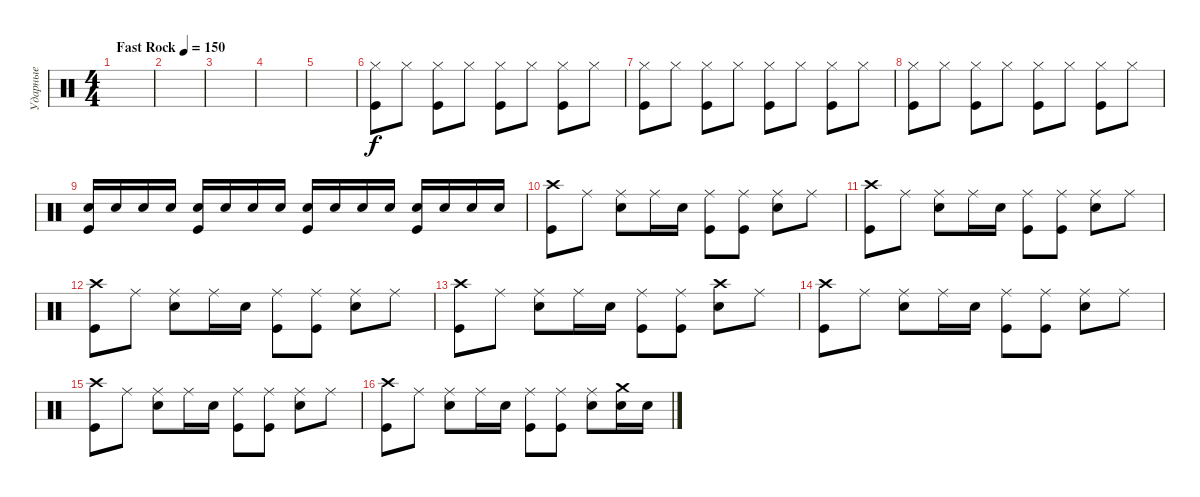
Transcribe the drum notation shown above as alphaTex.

\track ("Ударные" "Ударные") {instrument percussion}
\staff {score}
\articulation defaults
\ts (4 4)
\tempo (150 "Fast Rock")
\clef neutral
\ks c
|
|
|
|
|
("Hi-Hat (closed)" "Kick (hit)").8 "Hi-Hat (closed)".8 ("Hi-Hat (closed)" "Kick (hit)").8 "Hi-Hat (closed)".8 ("Hi-Hat (closed)" "Kick (hit)").8 "Hi-Hat (closed)".8 ("Hi-Hat (closed)" "Kick (hit)").8 "Hi-Hat (closed)".8 |
("Hi-Hat (closed)" "Kick (hit)").8 "Hi-Hat (closed)".8 ("Hi-Hat (closed)" "Kick (hit)").8 "Hi-Hat (closed)".8 ("Hi-Hat (closed)" "Kick (hit)").8 "Hi-Hat (closed)".8 ("Hi-Hat (closed)" "Kick (hit)").8 "Hi-Hat (closed)".8 |
("Hi-Hat (closed)" "Kick (hit)").8 "Hi-Hat (closed)".8 ("Hi-Hat (closed)" "Kick (hit)").8 "Hi-Hat (closed)".8 ("Hi-Hat (closed)" "Kick (hit)").8 "Hi-Hat (closed)".8 ("Hi-Hat (closed)" "Kick (hit)").8 "Hi-Hat (closed)".8 |
("Snare (hit) 2" "Kick (hit)").16 "Snare (hit) 2".16 "Snare (hit) 2".16 "Snare (hit) 2".16 ("Snare (hit) 2" "Kick (hit)").16 "Snare (hit) 2".16 "Snare (hit) 2".16 "Snare (hit) 2".16 ("Snare (hit) 2" "Kick (hit)").16 "Snare (hit) 2".16 "Snare (hit) 2".16 "Snare (hit) 2".16 ("Snare (hit) 2" "Kick (hit)").16 "Snare (hit) 2".16 "Snare (hit) 2".16 "Snare (hit) 2".16 |
("Crash high (hit)" "Kick (hit)").8 "Ride (middle)".8 ("Ride (middle)" "Snare (hit) 2").8 "Ride (middle)".16 "Snare (hit) 2".16 ("Ride (middle)" "Kick (hit)").8 ("Ride (middle)" "Kick (hit)").8 ("Ride (middle)" "Snare (hit) 2").8 "Ride (middle)".8 |
("Crash high (hit)" "Kick (hit)").8 "Ride (middle)".8 ("Ride (middle)" "Snare (hit) 2").8 "Ride (middle)".16 "Snare (hit) 2".16 ("Ride (middle)" "Kick (hit)").8 ("Ride (middle)" "Kick (hit)").8 ("Ride (middle)" "Snare (hit) 2").8 "Ride (middle)".8 |
("Crash high (hit)" "Kick (hit)").8 "Ride (middle)".8 ("Ride (middle)" "Snare (hit) 2").8 "Ride (middle)".16 "Snare (hit) 2".16 ("Ride (middle)" "Kick (hit)").8 ("Ride (middle)" "Kick (hit)").8 ("Ride (middle)" "Snare (hit) 2").8 "Ride (middle)".8 |
("Crash high (hit)" "Kick (hit)").8 "Ride (middle)".8 ("Ride (middle)" "Snare (hit) 2").8 "Ride (middle)".16 "Snare (hit) 2".16 ("Ride (middle)" "Kick (hit)").8 ("Ride (middle)" "Kick (hit)").8 ("Crash high (hit)" "Snare (hit) 2").8 "Ride (middle)".8 |
("Crash high (hit)" "Kick (hit)").8 "Ride (middle)".8 ("Ride (middle)" "Snare (hit) 2").8 "Ride (middle)".16 "Snare (hit) 2".16 ("Ride (middle)" "Kick (hit)").8 ("Ride (middle)" "Kick (hit)").8 ("Ride (middle)" "Snare (hit) 2").8 "Ride (middle)".8 |
("Crash high (hit)" "Kick (hit)").8 "Ride (middle)".8 ("Ride (middle)" "Snare (hit) 2").8 "Ride (middle)".16 "Snare (hit) 2".16 ("Ride (middle)" "Kick (hit)").8 ("Ride (middle)" "Kick (hit)").8 ("Ride (middle)" "Snare (hit) 2").8 "Ride (middle)".8 |
("Crash high (hit)" "Kick (hit)").8 "Ride (middle)".8 ("Ride (middle)" "Snare (hit) 2").8 "Ride (middle)".16 "Snare (hit) 2".16 ("Ride (middle)" "Kick (hit)").8 ("Ride (middle)" "Kick (hit)").8 ("Ride (middle)" "Snare (hit) 2").8 ("Crash medium (hit)" "Snare (hit) 2").16 "Snare (hit) 2".16
